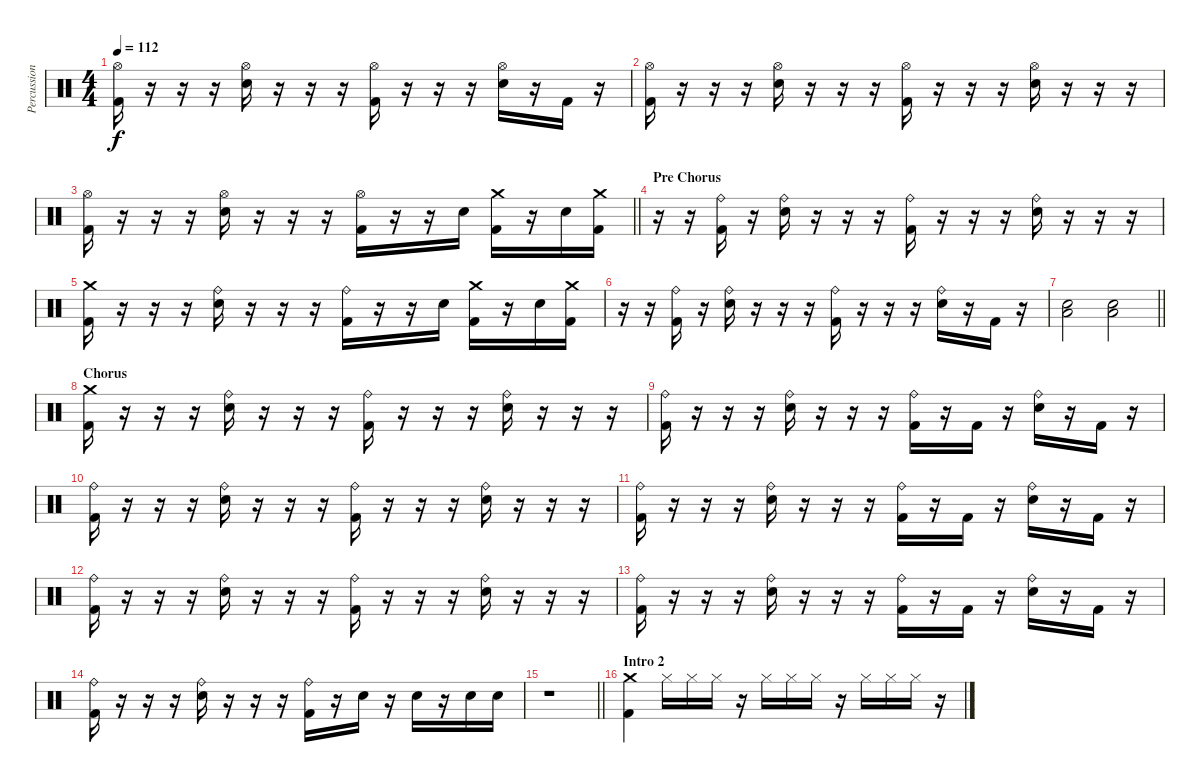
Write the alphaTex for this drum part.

\track ("Percussioni" "Percussion") {instrument percussion}
\staff {score}
\articulation defaults
\ts (4 4)
\tempo 112
\clef neutral
\ks c
("Kick (hit) 2" "Hi-Hat (open)").16{dy f} r.16 r.16 r.16 ("Snare (hit) 2" "Hi-Hat (open)").16 r.16 r.16 r.16 ("Kick (hit) 2" "Hi-Hat (open)").16 r.16 r.16 r.16 ("Snare (hit) 2" "Hi-Hat (open)").16 r.16 "Kick (hit) 2".16 r.16 |
("Kick (hit) 2" "Hi-Hat (open)").16 r.16 r.16 r.16 ("Snare (hit) 2" "Hi-Hat (open)").16 r.16 r.16 r.16 ("Kick (hit) 2" "Hi-Hat (open)").16 r.16 r.16 r.16 ("Snare (hit) 2" "Hi-Hat (open)").16 r.16 r.16 r.16 |
\barLineRight lightlight
("Kick (hit) 2" "Hi-Hat (open)").16 r.16 r.16 r.16 ("Snare (hit) 2" "Hi-Hat (open)").16 r.16 r.16 r.16 ("Kick (hit) 2" "Hi-Hat (open)").16 r.16 r.16 "Snare (hit) 2".16 ("Kick (hit) 2" "Crash medium (hit)").16 r.16 "Snare (hit) 2".16 ("Kick (hit) 2" "Crash medium (hit)").16 |
\section ("" "Pre Chorus")
r.16 r.16 ("Kick (hit) 2" "Ride (bell)").16 r.16 ("Snare (hit) 2" "Ride (bell)").16 r.16 r.16 r.16 ("Kick (hit) 2" "Ride (bell)").16 r.16 r.16 r.16 ("Snare (hit) 2" "Ride (bell)").16 r.16 r.16 r.16 |
("Kick (hit) 2" "Crash medium (hit)").16 r.16 r.16 r.16 ("Snare (hit) 2" "Ride (bell)").16 r.16 r.16 r.16 ("Kick (hit) 2" "Ride (bell)").16 r.16 r.16 "Snare (hit) 2".16 ("Kick (hit) 2" "Crash medium (hit)").16 r.16 "Snare (hit) 2".16 ("Kick (hit) 2" "Crash medium (hit)").16 |
r.16 r.16 ("Kick (hit) 2" "Ride (bell)").16 r.16 ("Snare (hit) 2" "Ride (bell)").16 r.16 r.16 r.16 ("Kick (hit) 2" "Ride (bell)").16 r.16 r.16 r.16 ("Snare (hit) 2" "Ride (bell)").16 r.16 "Kick (hit) 2".16 r.16 |
\barLineRight lightlight
("Low Floor Tom (hit)" "Snare (hit) 2").2 ("Low Floor Tom (hit)" "Snare (hit) 2").2 |
\section ("" "Chorus")
("Kick (hit) 2" "Crash medium (hit)").16 r.16 r.16 r.16 ("Snare (hit) 2" "Ride (bell)").16 r.16 r.16 r.16 ("Kick (hit) 2" "Ride (bell)").16 r.16 r.16 r.16 ("Snare (hit) 2" "Ride (bell)").16 r.16 r.16 r.16 |
("Kick (hit) 2" "Ride (bell)").16 r.16 r.16 r.16 ("Snare (hit) 2" "Ride (bell)").16 r.16 r.16 r.16 ("Kick (hit) 2" "Ride (bell)").16 r.16 "Kick (hit) 2".16 r.16 ("Snare (hit) 2" "Ride (bell)").16 r.16 "Kick (hit) 2".16 r.16 |
("Kick (hit) 2" "Ride (bell)").16 r.16 r.16 r.16 ("Snare (hit) 2" "Ride (bell)").16 r.16 r.16 r.16 ("Kick (hit) 2" "Ride (bell)").16 r.16 r.16 r.16 ("Snare (hit) 2" "Ride (bell)").16 r.16 r.16 r.16 |
("Kick (hit) 2" "Ride (bell)").16 r.16 r.16 r.16 ("Snare (hit) 2" "Ride (bell)").16 r.16 r.16 r.16 ("Kick (hit) 2" "Ride (bell)").16 r.16 "Kick (hit) 2".16 r.16 ("Snare (hit) 2" "Ride (bell)").16 r.16 "Kick (hit) 2".16 r.16 |
("Kick (hit) 2" "Ride (bell)").16 r.16 r.16 r.16 ("Snare (hit) 2" "Ride (bell)").16 r.16 r.16 r.16 ("Kick (hit) 2" "Ride (bell)").16 r.16 r.16 r.16 ("Snare (hit) 2" "Ride (bell)").16 r.16 r.16 r.16 |
("Kick (hit) 2" "Ride (bell)").16 r.16 r.16 r.16 ("Snare (hit) 2" "Ride (bell)").16 r.16 r.16 r.16 ("Kick (hit) 2" "Ride (bell)").16 r.16 "Kick (hit) 2".16 r.16 ("Snare (hit) 2" "Ride (bell)").16 r.16 "Kick (hit) 2".16 r.16 |
("Kick (hit) 2" "Ride (bell)").16 r.16 r.16 r.16 ("Snare (hit) 2" "Ride (bell)").16 r.16 r.16 r.16 ("Kick (hit) 2" "Ride (bell)").16 r.16 "Snare (hit) 2".16 r.16 "Snare (hit) 2".16 r.16 "Snare (hit) 2".16 "Snare (hit) 2".16 |
\barLineRight lightlight
r.1 |
\section ("" "Intro 2")
("Kick (hit) 2" "Crash medium (hit)").4 "Hi-Hat (closed)".16 "Hi-Hat (closed)".16 "Hi-Hat (closed)".16 r.16 "Hi-Hat (closed)".16 "Hi-Hat (closed)".16 "Hi-Hat (closed)".16 r.16 "Hi-Hat (closed)".16 "Hi-Hat (closed)".16 "Hi-Hat (closed)".16 r.16
